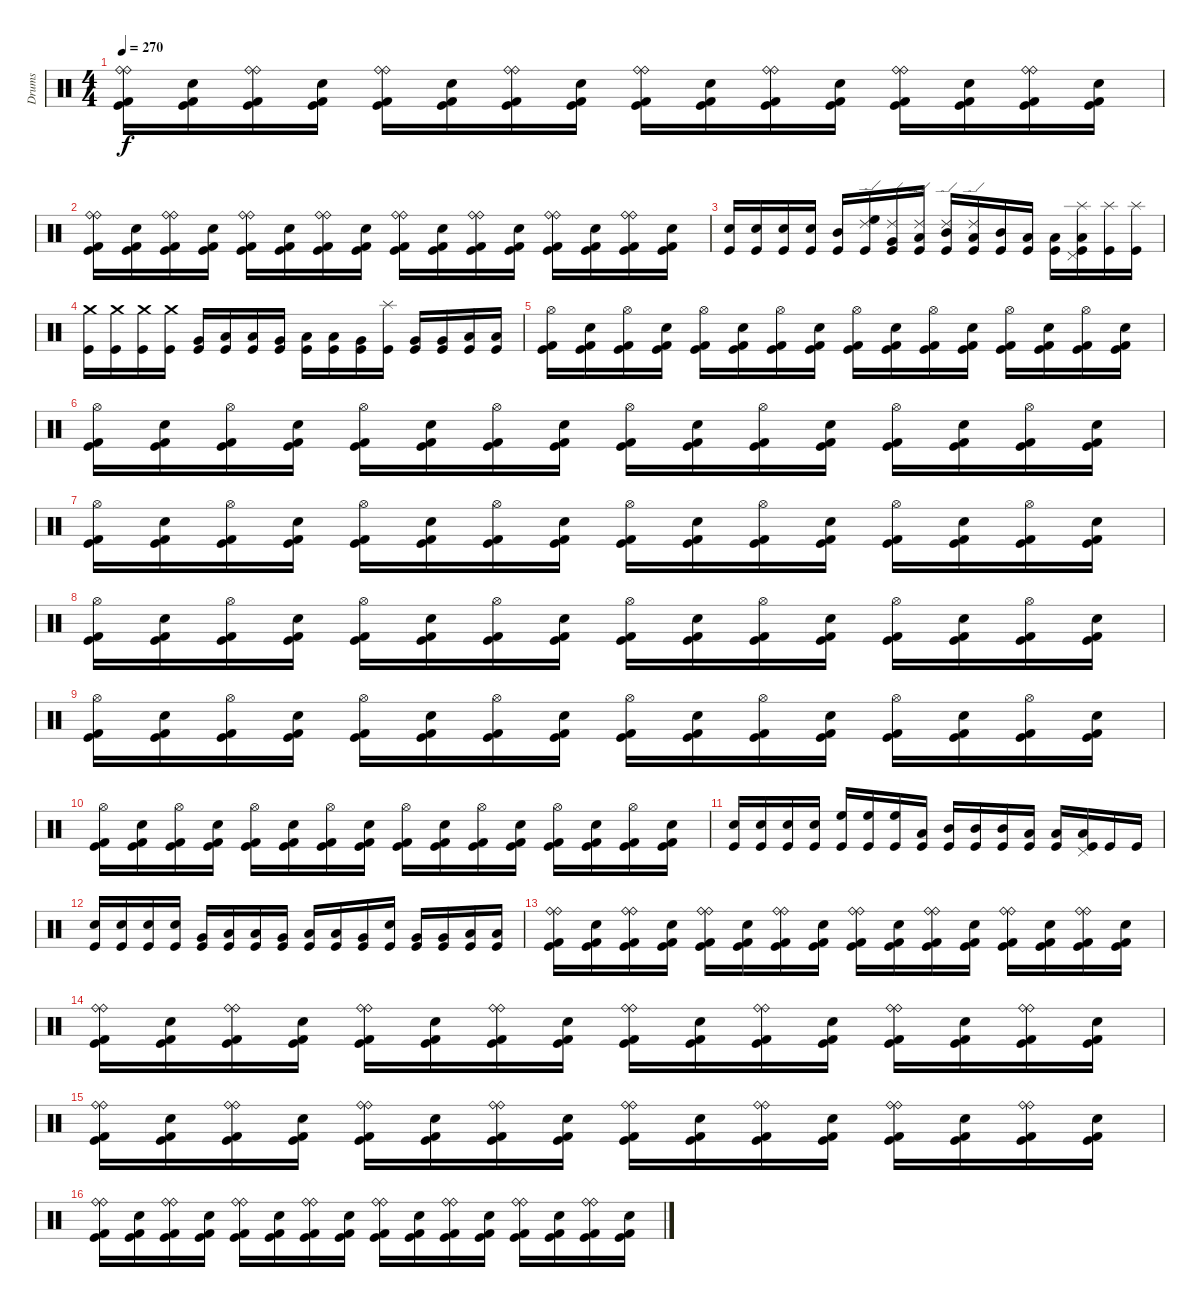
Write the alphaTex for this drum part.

\track ("Drums" "Drums") {instrument percussion}
\staff {score}
\articulation defaults
\ts (4 4)
\tempo 270
\clef neutral
\ks c
("Ride (bell)" "Ride (bell)" "Kick (hit)" "Kick (hit) 2").16{dy f} ("Electric Snare (hit)" "Kick (hit)" "Kick (hit) 2").16 ("Ride (bell)" "Ride (bell)" "Kick (hit)" "Kick (hit) 2").16 ("Electric Snare (hit)" "Kick (hit)" "Kick (hit) 2").16 ("Ride (bell)" "Ride (bell)" "Kick (hit)" "Kick (hit) 2").16 ("Electric Snare (hit)" "Kick (hit)" "Kick (hit) 2").16 ("Ride (bell)" "Ride (bell)" "Kick (hit)" "Kick (hit) 2").16 ("Electric Snare (hit)" "Kick (hit)" "Kick (hit) 2").16 ("Ride (bell)" "Ride (bell)" "Kick (hit)" "Kick (hit) 2").16 ("Electric Snare (hit)" "Kick (hit)" "Kick (hit) 2").16 ("Ride (bell)" "Ride (bell)" "Kick (hit)" "Kick (hit) 2").16 ("Electric Snare (hit)" "Kick (hit)" "Kick (hit) 2").16 ("Ride (bell)" "Ride (bell)" "Kick (hit)" "Kick (hit) 2").16 ("Electric Snare (hit)" "Kick (hit)" "Kick (hit) 2").16 ("Ride (bell)" "Ride (bell)" "Kick (hit)" "Kick (hit) 2").16 ("Electric Snare (hit)" "Kick (hit)" "Kick (hit) 2").16 |
("Ride (bell)" "Ride (bell)" "Kick (hit)" "Kick (hit) 2").16 ("Electric Snare (hit)" "Kick (hit)" "Kick (hit) 2").16 ("Ride (bell)" "Ride (bell)" "Kick (hit)" "Kick (hit) 2").16 ("Electric Snare (hit)" "Kick (hit)" "Kick (hit) 2").16 ("Ride (bell)" "Ride (bell)" "Kick (hit)" "Kick (hit) 2").16 ("Electric Snare (hit)" "Kick (hit)" "Kick (hit) 2").16 ("Ride (bell)" "Ride (bell)" "Kick (hit)" "Kick (hit) 2").16 ("Electric Snare (hit)" "Kick (hit)" "Kick (hit) 2").16 ("Ride (bell)" "Ride (bell)" "Kick (hit)" "Kick (hit) 2").16 ("Electric Snare (hit)" "Kick (hit)" "Kick (hit) 2").16 ("Ride (bell)" "Ride (bell)" "Kick (hit)" "Kick (hit) 2").16 ("Electric Snare (hit)" "Kick (hit)" "Kick (hit) 2").16 ("Ride (bell)" "Ride (bell)" "Kick (hit)" "Kick (hit) 2").16 ("Electric Snare (hit)" "Kick (hit)" "Kick (hit) 2").16 ("Ride (bell)" "Ride (bell)" "Kick (hit)" "Kick (hit) 2").16 ("Electric Snare (hit)" "Kick (hit)" "Kick (hit) 2").16 |
("Electric Snare (hit)" "Kick (hit)").16 ("Electric Snare (hit)" "Kick (hit)").16 ("Electric Snare (hit)" "Kick (hit)").16 ("Electric Snare (hit)" "Kick (hit)").16 ("Mid Tom (hit)" "Kick (hit)").16 ("Ride (edge) 2" "High Floor Tom (hit)" "Kick (hit)").16 ("Ride (edge) 2" "Very Low Tom (hit)" "Kick (hit)").16 ("Ride (edge) 2" "Low Tom (hit)" "Kick (hit)").16 ("Ride (edge) 2" "Mid Tom (hit)" "Kick (hit)").16 ("Ride (edge) 2" "Low Floor Tom (hit)" "Kick (hit)").16 ("Mid Tom (hit)" "Kick (hit)").16 ("Low Tom (hit)" "Kick (hit)").16 ("Low Floor Tom (hit)" "Kick (hit)").16 ("Pedal Hi-Hat (hit)" "Low Floor Tom (hit)" "Kick (hit)" "Splash (hit)").16 ("Kick (hit)" "Splash (hit)").16 ("Kick (hit)" "Splash (hit)").16 |
("Crash medium (hit)" "Kick (hit)").16 ("Crash medium (hit)" "Kick (hit)").16 ("Crash medium (hit)" "Kick (hit)").16 ("Crash medium (hit)" "Kick (hit)").16 ("Very Low Tom (hit)" "Kick (hit)").16 ("Low Tom (hit)" "Kick (hit)").16 ("Low Floor Tom (hit)" "Kick (hit)").16 ("Very Low Tom (hit)" "Kick (hit)").16 ("Low Floor Tom (hit)" "Kick (hit)").16 ("Low Floor Tom (hit)" "Kick (hit)").16 ("Very Low Tom (hit)" "Kick (hit)").16 ("Splash (hit)" "Kick (hit)").16 ("Very Low Tom (hit)" "Kick (hit)").16 ("Very Low Tom (hit)" "Kick (hit)").16 ("Low Floor Tom (hit)" "Kick (hit)").16 ("Low Floor Tom (hit)" "Kick (hit)").16 |
("Hi-Hat (open)" "Kick (hit)" "Kick (hit) 2").16 ("Electric Snare (hit)" "Kick (hit)" "Kick (hit) 2").16 ("Hi-Hat (open)" "Kick (hit)" "Kick (hit) 2").16 ("Electric Snare (hit)" "Kick (hit)" "Kick (hit) 2").16 ("Hi-Hat (open)" "Kick (hit)" "Kick (hit) 2").16 ("Electric Snare (hit)" "Kick (hit)" "Kick (hit) 2").16 ("Hi-Hat (open)" "Kick (hit)" "Kick (hit) 2").16 ("Electric Snare (hit)" "Kick (hit)" "Kick (hit) 2").16 ("Hi-Hat (open)" "Kick (hit)" "Kick (hit) 2").16 ("Electric Snare (hit)" "Kick (hit)" "Kick (hit) 2").16 ("Hi-Hat (open)" "Kick (hit)" "Kick (hit) 2").16 ("Electric Snare (hit)" "Kick (hit)" "Kick (hit) 2").16 ("Hi-Hat (open)" "Kick (hit)" "Kick (hit) 2").16 ("Electric Snare (hit)" "Kick (hit)" "Kick (hit) 2").16 ("Hi-Hat (open)" "Kick (hit)" "Kick (hit) 2").16 ("Electric Snare (hit)" "Kick (hit)" "Kick (hit) 2").16 |
("Hi-Hat (open)" "Kick (hit)" "Kick (hit) 2").16 ("Electric Snare (hit)" "Kick (hit)" "Kick (hit) 2").16 ("Hi-Hat (open)" "Kick (hit)" "Kick (hit) 2").16 ("Electric Snare (hit)" "Kick (hit)" "Kick (hit) 2").16 ("Hi-Hat (open)" "Kick (hit)" "Kick (hit) 2").16 ("Electric Snare (hit)" "Kick (hit)" "Kick (hit) 2").16 ("Hi-Hat (open)" "Kick (hit)" "Kick (hit) 2").16 ("Electric Snare (hit)" "Kick (hit)" "Kick (hit) 2").16 ("Hi-Hat (open)" "Kick (hit)" "Kick (hit) 2").16 ("Electric Snare (hit)" "Kick (hit)" "Kick (hit) 2").16 ("Hi-Hat (open)" "Kick (hit)" "Kick (hit) 2").16 ("Electric Snare (hit)" "Kick (hit)" "Kick (hit) 2").16 ("Hi-Hat (open)" "Kick (hit)" "Kick (hit) 2").16 ("Electric Snare (hit)" "Kick (hit)" "Kick (hit) 2").16 ("Hi-Hat (open)" "Kick (hit)" "Kick (hit) 2").16 ("Electric Snare (hit)" "Kick (hit)" "Kick (hit) 2").16 |
("Hi-Hat (open)" "Kick (hit)" "Kick (hit) 2").16 ("Electric Snare (hit)" "Kick (hit)" "Kick (hit) 2").16 ("Hi-Hat (open)" "Kick (hit)" "Kick (hit) 2").16 ("Electric Snare (hit)" "Kick (hit)" "Kick (hit) 2").16 ("Hi-Hat (open)" "Kick (hit)" "Kick (hit) 2").16 ("Electric Snare (hit)" "Kick (hit)" "Kick (hit) 2").16 ("Hi-Hat (open)" "Kick (hit)" "Kick (hit) 2").16 ("Electric Snare (hit)" "Kick (hit)" "Kick (hit) 2").16 ("Hi-Hat (open)" "Kick (hit)" "Kick (hit) 2").16 ("Electric Snare (hit)" "Kick (hit)" "Kick (hit) 2").16 ("Hi-Hat (open)" "Kick (hit)" "Kick (hit) 2").16 ("Electric Snare (hit)" "Kick (hit)" "Kick (hit) 2").16 ("Hi-Hat (open)" "Kick (hit)" "Kick (hit) 2").16 ("Electric Snare (hit)" "Kick (hit)" "Kick (hit) 2").16 ("Hi-Hat (open)" "Kick (hit)" "Kick (hit) 2").16 ("Electric Snare (hit)" "Kick (hit)" "Kick (hit) 2").16 |
("Hi-Hat (open)" "Kick (hit)" "Kick (hit) 2").16 ("Electric Snare (hit)" "Kick (hit)" "Kick (hit) 2").16 ("Hi-Hat (open)" "Kick (hit)" "Kick (hit) 2").16 ("Electric Snare (hit)" "Kick (hit)" "Kick (hit) 2").16 ("Hi-Hat (open)" "Kick (hit)" "Kick (hit) 2").16 ("Electric Snare (hit)" "Kick (hit)" "Kick (hit) 2").16 ("Hi-Hat (open)" "Kick (hit)" "Kick (hit) 2").16 ("Electric Snare (hit)" "Kick (hit)" "Kick (hit) 2").16 ("Hi-Hat (open)" "Kick (hit)" "Kick (hit) 2").16 ("Electric Snare (hit)" "Kick (hit)" "Kick (hit) 2").16 ("Hi-Hat (open)" "Kick (hit)" "Kick (hit) 2").16 ("Electric Snare (hit)" "Kick (hit)" "Kick (hit) 2").16 ("Hi-Hat (open)" "Kick (hit)" "Kick (hit) 2").16 ("Electric Snare (hit)" "Kick (hit)" "Kick (hit) 2").16 ("Hi-Hat (open)" "Kick (hit)" "Kick (hit) 2").16 ("Electric Snare (hit)" "Kick (hit)" "Kick (hit) 2").16 |
("Hi-Hat (open)" "Kick (hit)" "Kick (hit) 2").16 ("Electric Snare (hit)" "Kick (hit)" "Kick (hit) 2").16 ("Hi-Hat (open)" "Kick (hit)" "Kick (hit) 2").16 ("Electric Snare (hit)" "Kick (hit)" "Kick (hit) 2").16 ("Hi-Hat (open)" "Kick (hit)" "Kick (hit) 2").16 ("Electric Snare (hit)" "Kick (hit)" "Kick (hit) 2").16 ("Hi-Hat (open)" "Kick (hit)" "Kick (hit) 2").16 ("Electric Snare (hit)" "Kick (hit)" "Kick (hit) 2").16 ("Hi-Hat (open)" "Kick (hit)" "Kick (hit) 2").16 ("Electric Snare (hit)" "Kick (hit)" "Kick (hit) 2").16 ("Hi-Hat (open)" "Kick (hit)" "Kick (hit) 2").16 ("Electric Snare (hit)" "Kick (hit)" "Kick (hit) 2").16 ("Hi-Hat (open)" "Kick (hit)" "Kick (hit) 2").16 ("Electric Snare (hit)" "Kick (hit)" "Kick (hit) 2").16 ("Hi-Hat (open)" "Kick (hit)" "Kick (hit) 2").16 ("Electric Snare (hit)" "Kick (hit)" "Kick (hit) 2").16 |
("Hi-Hat (open)" "Kick (hit)" "Kick (hit) 2").16 ("Electric Snare (hit)" "Kick (hit)" "Kick (hit) 2").16 ("Hi-Hat (open)" "Kick (hit)" "Kick (hit) 2").16 ("Electric Snare (hit)" "Kick (hit)" "Kick (hit) 2").16 ("Hi-Hat (open)" "Kick (hit)" "Kick (hit) 2").16 ("Electric Snare (hit)" "Kick (hit)" "Kick (hit) 2").16 ("Hi-Hat (open)" "Kick (hit)" "Kick (hit) 2").16 ("Electric Snare (hit)" "Kick (hit)" "Kick (hit) 2").16 ("Hi-Hat (open)" "Kick (hit)" "Kick (hit) 2").16 ("Electric Snare (hit)" "Kick (hit)" "Kick (hit) 2").16 ("Hi-Hat (open)" "Kick (hit)" "Kick (hit) 2").16 ("Electric Snare (hit)" "Kick (hit)" "Kick (hit) 2").16 ("Hi-Hat (open)" "Kick (hit)" "Kick (hit) 2").16 ("Electric Snare (hit)" "Kick (hit)" "Kick (hit) 2").16 ("Hi-Hat (open)" "Kick (hit)" "Kick (hit) 2").16 ("Electric Snare (hit)" "Kick (hit)" "Kick (hit) 2").16 |
("Electric Snare (hit)" "Kick (hit)").16 ("Electric Snare (hit)" "Kick (hit)").16 ("Electric Snare (hit)" "Kick (hit)").16 ("Electric Snare (hit)" "Kick (hit)").16 ("High Floor Tom (hit)" "Kick (hit)").16 ("High Floor Tom (hit)" "Kick (hit)").16 ("High Floor Tom (hit)" "Kick (hit)").16 ("Low Tom (hit)" "Kick (hit)").16 ("Mid Tom (hit)" "Kick (hit)").16 ("Mid Tom (hit)" "Kick (hit)").16 ("Mid Tom (hit)" "Kick (hit)").16 ("Low Tom (hit)" "Kick (hit)").16 ("Low Tom (hit)" "Kick (hit)").16 ("Pedal Hi-Hat (hit)" "Low Tom (hit)" "Kick (hit)").16 "Kick (hit)".16 "Kick (hit)".16 |
("Electric Snare (hit)" "Kick (hit)").16 ("Electric Snare (hit)" "Kick (hit)").16 ("Electric Snare (hit)" "Kick (hit)").16 ("Electric Snare (hit)" "Kick (hit)").16 ("Very Low Tom (hit)" "Kick (hit)").16 ("Low Tom (hit)" "Kick (hit)").16 ("Low Floor Tom (hit)" "Kick (hit)").16 ("Very Low Tom (hit)" "Kick (hit)").16 ("Low Floor Tom (hit)" "Kick (hit)").16 ("Low Floor Tom (hit)" "Kick (hit)").16 ("Very Low Tom (hit)" "Kick (hit)").16 ("Electric Snare (hit)" "Kick (hit)").16 ("Very Low Tom (hit)" "Kick (hit)").16 ("Very Low Tom (hit)" "Kick (hit)").16 ("Low Floor Tom (hit)" "Kick (hit)").16 ("Low Floor Tom (hit)" "Kick (hit)").16 |
("Ride (bell)" "Ride (bell)" "Kick (hit)" "Kick (hit) 2").16 ("Electric Snare (hit)" "Kick (hit)" "Kick (hit) 2").16 ("Ride (bell)" "Ride (bell)" "Kick (hit)" "Kick (hit) 2").16 ("Electric Snare (hit)" "Kick (hit)" "Kick (hit) 2").16 ("Ride (bell)" "Ride (bell)" "Kick (hit)" "Kick (hit) 2").16 ("Electric Snare (hit)" "Kick (hit)" "Kick (hit) 2").16 ("Ride (bell)" "Ride (bell)" "Kick (hit)" "Kick (hit) 2").16 ("Electric Snare (hit)" "Kick (hit)" "Kick (hit) 2").16 ("Ride (bell)" "Ride (bell)" "Kick (hit)" "Kick (hit) 2").16 ("Electric Snare (hit)" "Kick (hit)" "Kick (hit) 2").16 ("Ride (bell)" "Ride (bell)" "Kick (hit)" "Kick (hit) 2").16 ("Electric Snare (hit)" "Kick (hit)" "Kick (hit) 2").16 ("Ride (bell)" "Ride (bell)" "Kick (hit)" "Kick (hit) 2").16 ("Electric Snare (hit)" "Kick (hit)" "Kick (hit) 2").16 ("Ride (bell)" "Ride (bell)" "Kick (hit)" "Kick (hit) 2").16 ("Electric Snare (hit)" "Kick (hit)" "Kick (hit) 2").16 |
("Ride (bell)" "Ride (bell)" "Kick (hit)" "Kick (hit) 2").16 ("Electric Snare (hit)" "Kick (hit)" "Kick (hit) 2").16 ("Ride (bell)" "Ride (bell)" "Kick (hit)" "Kick (hit) 2").16 ("Electric Snare (hit)" "Kick (hit)" "Kick (hit) 2").16 ("Ride (bell)" "Ride (bell)" "Kick (hit)" "Kick (hit) 2").16 ("Electric Snare (hit)" "Kick (hit)" "Kick (hit) 2").16 ("Ride (bell)" "Ride (bell)" "Kick (hit)" "Kick (hit) 2").16 ("Electric Snare (hit)" "Kick (hit)" "Kick (hit) 2").16 ("Ride (bell)" "Ride (bell)" "Kick (hit)" "Kick (hit) 2").16 ("Electric Snare (hit)" "Kick (hit)" "Kick (hit) 2").16 ("Ride (bell)" "Ride (bell)" "Kick (hit)" "Kick (hit) 2").16 ("Electric Snare (hit)" "Kick (hit)" "Kick (hit) 2").16 ("Ride (bell)" "Ride (bell)" "Kick (hit)" "Kick (hit) 2").16 ("Electric Snare (hit)" "Kick (hit)" "Kick (hit) 2").16 ("Ride (bell)" "Ride (bell)" "Kick (hit)" "Kick (hit) 2").16 ("Electric Snare (hit)" "Kick (hit)" "Kick (hit) 2").16 |
("Ride (bell)" "Ride (bell)" "Kick (hit)" "Kick (hit) 2").16 ("Electric Snare (hit)" "Kick (hit)" "Kick (hit) 2").16 ("Ride (bell)" "Ride (bell)" "Kick (hit)" "Kick (hit) 2").16 ("Electric Snare (hit)" "Kick (hit)" "Kick (hit) 2").16 ("Ride (bell)" "Ride (bell)" "Kick (hit)" "Kick (hit) 2").16 ("Electric Snare (hit)" "Kick (hit)" "Kick (hit) 2").16 ("Ride (bell)" "Ride (bell)" "Kick (hit)" "Kick (hit) 2").16 ("Electric Snare (hit)" "Kick (hit)" "Kick (hit) 2").16 ("Ride (bell)" "Ride (bell)" "Kick (hit)" "Kick (hit) 2").16 ("Electric Snare (hit)" "Kick (hit)" "Kick (hit) 2").16 ("Ride (bell)" "Ride (bell)" "Kick (hit)" "Kick (hit) 2").16 ("Electric Snare (hit)" "Kick (hit)" "Kick (hit) 2").16 ("Ride (bell)" "Ride (bell)" "Kick (hit)" "Kick (hit) 2").16 ("Electric Snare (hit)" "Kick (hit)" "Kick (hit) 2").16 ("Ride (bell)" "Ride (bell)" "Kick (hit)" "Kick (hit) 2").16 ("Electric Snare (hit)" "Kick (hit)" "Kick (hit) 2").16 |
("Ride (bell)" "Ride (bell)" "Kick (hit)" "Kick (hit) 2").16 ("Electric Snare (hit)" "Kick (hit)" "Kick (hit) 2").16 ("Ride (bell)" "Ride (bell)" "Kick (hit)" "Kick (hit) 2").16 ("Electric Snare (hit)" "Kick (hit)" "Kick (hit) 2").16 ("Ride (bell)" "Ride (bell)" "Kick (hit)" "Kick (hit) 2").16 ("Electric Snare (hit)" "Kick (hit)" "Kick (hit) 2").16 ("Ride (bell)" "Ride (bell)" "Kick (hit)" "Kick (hit) 2").16 ("Electric Snare (hit)" "Kick (hit)" "Kick (hit) 2").16 ("Ride (bell)" "Ride (bell)" "Kick (hit)" "Kick (hit) 2").16 ("Electric Snare (hit)" "Kick (hit)" "Kick (hit) 2").16 ("Ride (bell)" "Ride (bell)" "Kick (hit)" "Kick (hit) 2").16 ("Electric Snare (hit)" "Kick (hit)" "Kick (hit) 2").16 ("Ride (bell)" "Ride (bell)" "Kick (hit)" "Kick (hit) 2").16 ("Electric Snare (hit)" "Kick (hit)" "Kick (hit) 2").16 ("Ride (bell)" "Ride (bell)" "Kick (hit)" "Kick (hit) 2").16 ("Electric Snare (hit)" "Kick (hit)" "Kick (hit) 2").16
